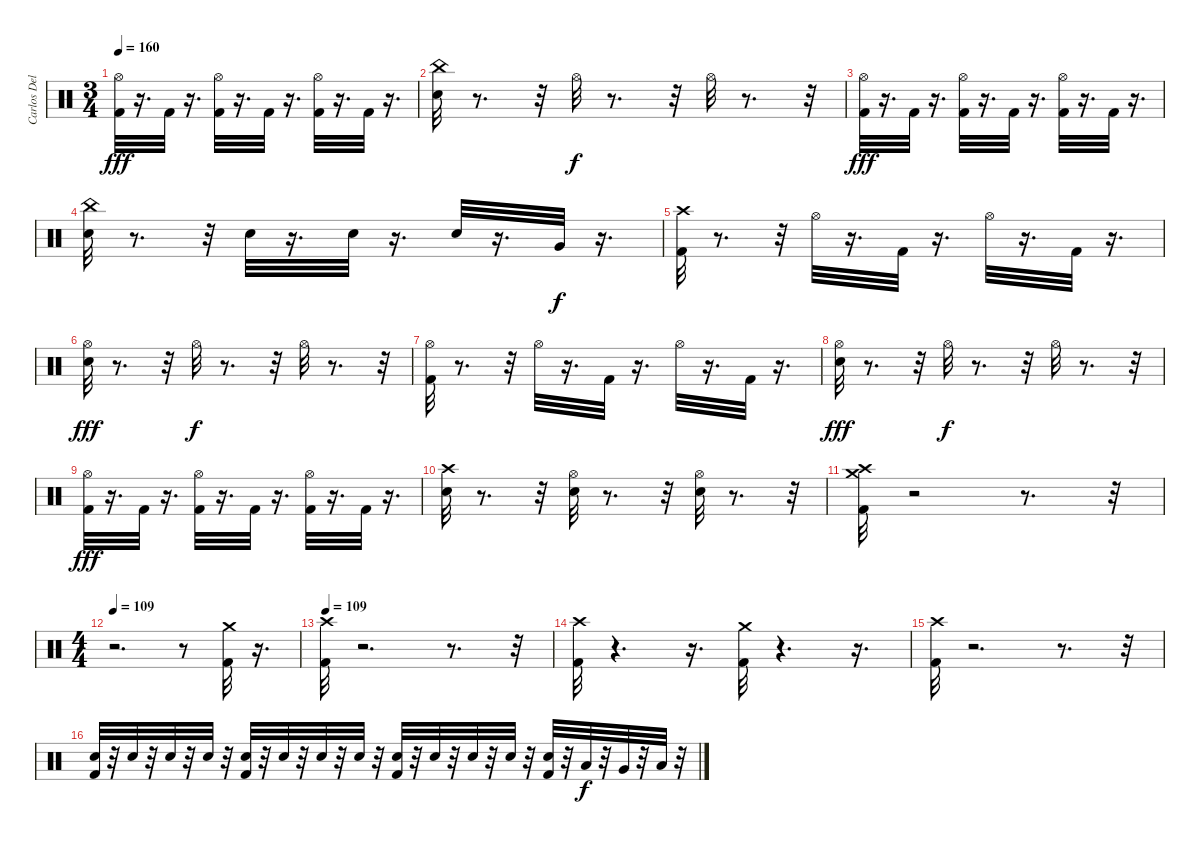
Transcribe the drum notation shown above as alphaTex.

\track ("Carlos Delgado" "Carlos Del") {instrument percussion}
\staff {score}
\articulation defaults
\ts (3 4)
\tempo 160
\clef neutral
\ks c
("Kick (hit) 2" "Hi-Hat (open)").32{dy fff} r.16{d} "Kick (hit) 2".32 r.16{d} ("Kick (hit) 2" "Hi-Hat (open)").32 r.16{d} "Kick (hit) 2".32 r.16{d} ("Hi-Hat (open)" "Kick (hit) 2").32 r.16{d} "Kick (hit) 2".32 r.16{d} |
("China (hit)" "Electric Snare (hit)").32 r.8{d} r.32 "Hi-Hat (open)".32{dy f} r.8{d} r.32 "Hi-Hat (open)".32 r.8{d} r.32 |
("Kick (hit) 2" "Hi-Hat (open)").32{dy fff} r.16{d} "Kick (hit) 2".32 r.16{d} ("Kick (hit) 2" "Hi-Hat (open)").32 r.16{d} "Kick (hit) 2".32 r.16{d} ("Kick (hit) 2" "Hi-Hat (open)").32 r.16{d} "Kick (hit) 2".32 r.16{d} |
("Electric Snare (hit)" "China (hit)").32 r.8{d} r.32 "Electric Snare (hit)".32 r.16{d} "Electric Snare (hit)".32 r.16{d} "Electric Snare (hit)".32 r.16{d} "Very Low Tom (hit)".32{dy f} r.16{d} |
("Crash high (hit)" "Kick (hit) 2").32 r.8{d} r.32 "Hi-Hat (open)".32 r.16{d} "Kick (hit) 2".32 r.16{d} "Hi-Hat (open)".32 r.16{d} "Kick (hit) 2".32 r.16{d} |
("Electric Snare (hit)" "Hi-Hat (open)").32{dy fff} r.8{d} r.32 "Hi-Hat (open)".32{dy f} r.8{d} r.32 "Hi-Hat (open)".32 r.8{d} r.32 |
("Kick (hit) 2" "Hi-Hat (open)").32 r.8{d} r.32 "Hi-Hat (open)".32 r.16{d} "Kick (hit) 2".32 r.16{d} "Hi-Hat (open)".32 r.16{d} "Kick (hit) 2".32 r.16{d} |
("Electric Snare (hit)" "Hi-Hat (open)").32{dy fff} r.8{d} r.32 "Hi-Hat (open)".32{dy f} r.8{d} r.32 "Hi-Hat (open)".32 r.8{d} r.32 |
("Hi-Hat (open)" "Kick (hit) 2").32{dy fff} r.16{d} "Kick (hit) 2".32 r.16{d} ("Kick (hit) 2" "Hi-Hat (open)").32 r.16{d} "Kick (hit) 2".32 r.16{d} ("Kick (hit) 2" "Hi-Hat (open)").32 r.16{d} "Kick (hit) 2".32 r.16{d} |
("Electric Snare (hit)" "Crash high (hit)").32 r.8{d} r.32 ("Electric Snare (hit)" "Hi-Hat (open)").32 r.8{d} r.32 ("Electric Snare (hit)" "Hi-Hat (open)").32 r.8{d} r.32 |
("Crash medium (hit)" "Crash high (hit)" "Kick (hit) 2").32 r.2 r.8{d} r.32 |
\ts (4 4)
\tempo 109
r.2{d} r.8 ("Crash medium (hit)" "Kick (hit) 2").32 r.16{d} |
\tempo 109
("Kick (hit) 2" "Crash high (hit)").32 r.2{d} r.8{d} r.32 |
("Crash high (hit)" "Kick (hit) 2").32 r.4{d} r.16{d} ("Crash medium (hit)" "Kick (hit) 2").32 r.4{d} r.16{d} |
("Crash high (hit)" "Kick (hit) 2").32 r.2{d} r.8{d} r.32 |
("Electric Snare (hit)" "Kick (hit) 2").32 r.32 "Electric Snare (hit)".32 r.32 "Electric Snare (hit)".32 r.32 "Electric Snare (hit)".32 r.32 ("Kick (hit) 2" "Electric Snare (hit)").32 r.32 "Electric Snare (hit)".32 r.32 "Electric Snare (hit)".32 r.32 "Electric Snare (hit)".32 r.32 ("Kick (hit) 2" "Electric Snare (hit)").32 r.32 "Electric Snare (hit)".32 r.32 "Electric Snare (hit)".32 r.32 "Electric Snare (hit)".32 r.32 ("Kick (hit) 2" "Electric Snare (hit)").32 r.32 "Low Tom (hit)".32{dy f} r.32 "Very Low Tom (hit)".32 r.32 "Low Floor Tom (hit)".32 r.32
